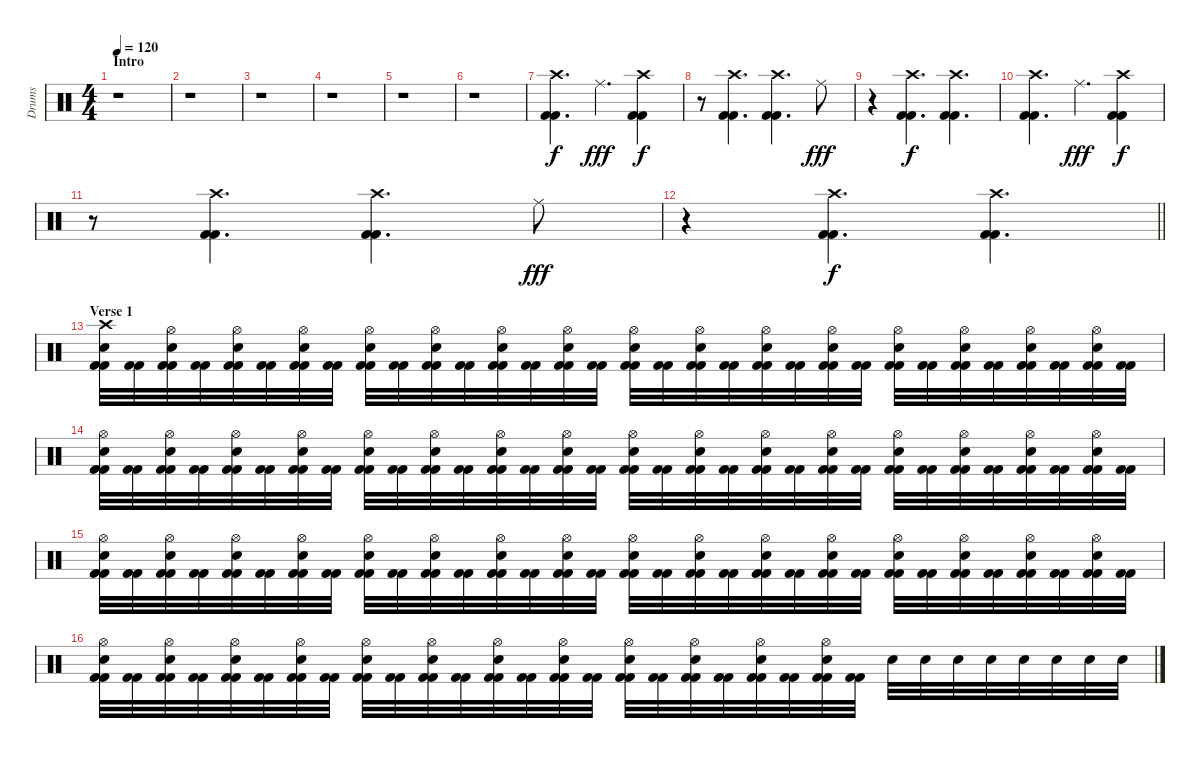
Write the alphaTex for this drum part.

\track ("Drums" "Drums") {instrument percussion}
\staff {score}
\articulation defaults
\ts (4 4)
\section ("" "Intro")
\tempo 120
\clef neutral
\ks c
r.1{dy f} |
r.1 |
r.1 |
r.1 |
r.1 |
r.1 |
("Kick (hit) 2" "Kick (hit) 2" "Crash high (hit)").4{d} "Ride (middle)".4{d dy fff} ("Kick (hit) 2" "Kick (hit) 2" "Crash high (hit)").4{dy f} |
r.8 ("Kick (hit) 2" "Kick (hit) 2" "Crash high (hit)").4{d} ("Kick (hit) 2" "Kick (hit) 2" "Crash high (hit)").4{d} "Ride (middle)".8{dy fff} |
r.4 ("Kick (hit) 2" "Kick (hit) 2" "Crash high (hit)").4{d dy f} ("Kick (hit) 2" "Kick (hit) 2" "Crash high (hit)").4{d} |
("Kick (hit) 2" "Kick (hit) 2" "Crash high (hit)").4{d} "Ride (middle)".4{d dy fff} ("Kick (hit) 2" "Kick (hit) 2" "Crash high (hit)").4{dy f} |
r.8 ("Kick (hit) 2" "Kick (hit) 2" "Crash high (hit)").4{d} ("Kick (hit) 2" "Kick (hit) 2" "Crash high (hit)").4{d} "Ride (middle)".8{dy fff} |
\barLineRight lightlight
r.4 ("Kick (hit) 2" "Kick (hit) 2" "Crash high (hit)").4{d dy f} ("Kick (hit) 2" "Kick (hit) 2" "Crash high (hit)").4{d} |
\section ("" "Verse 1")
("Kick (hit) 2" "Kick (hit) 2" "Electric Snare (hit)" "Crash high (hit)").32 ("Kick (hit) 2" "Kick (hit) 2").32 ("Kick (hit) 2" "Kick (hit) 2" "Electric Snare (hit)" "Hi-Hat (open)").32 ("Kick (hit) 2" "Kick (hit) 2").32 ("Kick (hit) 2" "Kick (hit) 2" "Electric Snare (hit)" "Hi-Hat (open)").32 ("Kick (hit) 2" "Kick (hit) 2").32 ("Kick (hit) 2" "Kick (hit) 2" "Electric Snare (hit)" "Hi-Hat (open)").32 ("Kick (hit) 2" "Kick (hit) 2").32 ("Kick (hit) 2" "Kick (hit) 2" "Electric Snare (hit)" "Hi-Hat (open)").32 ("Kick (hit) 2" "Kick (hit) 2").32 ("Kick (hit) 2" "Kick (hit) 2" "Electric Snare (hit)" "Hi-Hat (open)").32 ("Kick (hit) 2" "Kick (hit) 2").32 ("Kick (hit) 2" "Kick (hit) 2" "Electric Snare (hit)" "Hi-Hat (open)").32 ("Kick (hit) 2" "Kick (hit) 2").32 ("Kick (hit) 2" "Kick (hit) 2" "Electric Snare (hit)" "Hi-Hat (open)").32 ("Kick (hit) 2" "Kick (hit) 2").32 ("Kick (hit) 2" "Kick (hit) 2" "Electric Snare (hit)" "Hi-Hat (open)").32 ("Kick (hit) 2" "Kick (hit) 2").32 ("Kick (hit) 2" "Kick (hit) 2" "Electric Snare (hit)" "Hi-Hat (open)").32 ("Kick (hit) 2" "Kick (hit) 2").32 ("Kick (hit) 2" "Kick (hit) 2" "Electric Snare (hit)" "Hi-Hat (open)").32 ("Kick (hit) 2" "Kick (hit) 2").32 ("Kick (hit) 2" "Kick (hit) 2" "Electric Snare (hit)" "Hi-Hat (open)").32 ("Kick (hit) 2" "Kick (hit) 2").32 ("Kick (hit) 2" "Kick (hit) 2" "Electric Snare (hit)" "Hi-Hat (open)").32 ("Kick (hit) 2" "Kick (hit) 2").32 ("Kick (hit) 2" "Kick (hit) 2" "Electric Snare (hit)" "Hi-Hat (open)").32 ("Kick (hit) 2" "Kick (hit) 2").32 ("Kick (hit) 2" "Kick (hit) 2" "Electric Snare (hit)" "Hi-Hat (open)").32 ("Kick (hit) 2" "Kick (hit) 2").32 ("Kick (hit) 2" "Kick (hit) 2" "Electric Snare (hit)" "Hi-Hat (open)").32 ("Kick (hit) 2" "Kick (hit) 2").32 |
("Kick (hit) 2" "Kick (hit) 2" "Electric Snare (hit)" "Hi-Hat (open)").32 ("Kick (hit) 2" "Kick (hit) 2").32 ("Kick (hit) 2" "Kick (hit) 2" "Electric Snare (hit)" "Hi-Hat (open)").32 ("Kick (hit) 2" "Kick (hit) 2").32 ("Kick (hit) 2" "Kick (hit) 2" "Electric Snare (hit)" "Hi-Hat (open)").32 ("Kick (hit) 2" "Kick (hit) 2").32 ("Kick (hit) 2" "Kick (hit) 2" "Electric Snare (hit)" "Hi-Hat (open)").32 ("Kick (hit) 2" "Kick (hit) 2").32 ("Kick (hit) 2" "Kick (hit) 2" "Electric Snare (hit)" "Hi-Hat (open)").32 ("Kick (hit) 2" "Kick (hit) 2").32 ("Kick (hit) 2" "Kick (hit) 2" "Electric Snare (hit)" "Hi-Hat (open)").32 ("Kick (hit) 2" "Kick (hit) 2").32 ("Kick (hit) 2" "Kick (hit) 2" "Electric Snare (hit)" "Hi-Hat (open)").32 ("Kick (hit) 2" "Kick (hit) 2").32 ("Kick (hit) 2" "Kick (hit) 2" "Electric Snare (hit)" "Hi-Hat (open)").32 ("Kick (hit) 2" "Kick (hit) 2").32 ("Kick (hit) 2" "Kick (hit) 2" "Electric Snare (hit)" "Hi-Hat (open)").32 ("Kick (hit) 2" "Kick (hit) 2").32 ("Kick (hit) 2" "Kick (hit) 2" "Electric Snare (hit)" "Hi-Hat (open)").32 ("Kick (hit) 2" "Kick (hit) 2").32 ("Kick (hit) 2" "Kick (hit) 2" "Electric Snare (hit)" "Hi-Hat (open)").32 ("Kick (hit) 2" "Kick (hit) 2").32 ("Kick (hit) 2" "Kick (hit) 2" "Electric Snare (hit)" "Hi-Hat (open)").32 ("Kick (hit) 2" "Kick (hit) 2").32 ("Kick (hit) 2" "Kick (hit) 2" "Electric Snare (hit)" "Hi-Hat (open)").32 ("Kick (hit) 2" "Kick (hit) 2").32 ("Kick (hit) 2" "Kick (hit) 2" "Electric Snare (hit)" "Hi-Hat (open)").32 ("Kick (hit) 2" "Kick (hit) 2").32 ("Kick (hit) 2" "Kick (hit) 2" "Electric Snare (hit)" "Hi-Hat (open)").32 ("Kick (hit) 2" "Kick (hit) 2").32 ("Kick (hit) 2" "Kick (hit) 2" "Electric Snare (hit)" "Hi-Hat (open)").32 ("Kick (hit) 2" "Kick (hit) 2").32 |
("Kick (hit) 2" "Kick (hit) 2" "Electric Snare (hit)" "Hi-Hat (open)").32 ("Kick (hit) 2" "Kick (hit) 2").32 ("Kick (hit) 2" "Kick (hit) 2" "Electric Snare (hit)" "Hi-Hat (open)").32 ("Kick (hit) 2" "Kick (hit) 2").32 ("Kick (hit) 2" "Kick (hit) 2" "Electric Snare (hit)" "Hi-Hat (open)").32 ("Kick (hit) 2" "Kick (hit) 2").32 ("Kick (hit) 2" "Kick (hit) 2" "Electric Snare (hit)" "Hi-Hat (open)").32 ("Kick (hit) 2" "Kick (hit) 2").32 ("Kick (hit) 2" "Kick (hit) 2" "Electric Snare (hit)" "Hi-Hat (open)").32 ("Kick (hit) 2" "Kick (hit) 2").32 ("Kick (hit) 2" "Kick (hit) 2" "Electric Snare (hit)" "Hi-Hat (open)").32 ("Kick (hit) 2" "Kick (hit) 2").32 ("Kick (hit) 2" "Kick (hit) 2" "Electric Snare (hit)" "Hi-Hat (open)").32 ("Kick (hit) 2" "Kick (hit) 2").32 ("Kick (hit) 2" "Kick (hit) 2" "Electric Snare (hit)" "Hi-Hat (open)").32 ("Kick (hit) 2" "Kick (hit) 2").32 ("Kick (hit) 2" "Kick (hit) 2" "Electric Snare (hit)" "Hi-Hat (open)").32 ("Kick (hit) 2" "Kick (hit) 2").32 ("Kick (hit) 2" "Kick (hit) 2" "Electric Snare (hit)" "Hi-Hat (open)").32 ("Kick (hit) 2" "Kick (hit) 2").32 ("Kick (hit) 2" "Kick (hit) 2" "Electric Snare (hit)" "Hi-Hat (open)").32 ("Kick (hit) 2" "Kick (hit) 2").32 ("Kick (hit) 2" "Kick (hit) 2" "Electric Snare (hit)" "Hi-Hat (open)").32 ("Kick (hit) 2" "Kick (hit) 2").32 ("Kick (hit) 2" "Kick (hit) 2" "Electric Snare (hit)" "Hi-Hat (open)").32 ("Kick (hit) 2" "Kick (hit) 2").32 ("Kick (hit) 2" "Kick (hit) 2" "Electric Snare (hit)" "Hi-Hat (open)").32 ("Kick (hit) 2" "Kick (hit) 2").32 ("Kick (hit) 2" "Kick (hit) 2" "Electric Snare (hit)" "Hi-Hat (open)").32 ("Kick (hit) 2" "Kick (hit) 2").32 ("Kick (hit) 2" "Kick (hit) 2" "Electric Snare (hit)" "Hi-Hat (open)").32 ("Kick (hit) 2" "Kick (hit) 2").32 |
("Kick (hit) 2" "Kick (hit) 2" "Electric Snare (hit)" "Hi-Hat (open)").32 ("Kick (hit) 2" "Kick (hit) 2").32 ("Kick (hit) 2" "Kick (hit) 2" "Electric Snare (hit)" "Hi-Hat (open)").32 ("Kick (hit) 2" "Kick (hit) 2").32 ("Kick (hit) 2" "Kick (hit) 2" "Electric Snare (hit)" "Hi-Hat (open)").32 ("Kick (hit) 2" "Kick (hit) 2").32 ("Kick (hit) 2" "Kick (hit) 2" "Electric Snare (hit)" "Hi-Hat (open)").32 ("Kick (hit) 2" "Kick (hit) 2").32 ("Kick (hit) 2" "Kick (hit) 2" "Electric Snare (hit)" "Hi-Hat (open)").32 ("Kick (hit) 2" "Kick (hit) 2").32 ("Kick (hit) 2" "Kick (hit) 2" "Electric Snare (hit)" "Hi-Hat (open)").32 ("Kick (hit) 2" "Kick (hit) 2").32 ("Kick (hit) 2" "Kick (hit) 2" "Electric Snare (hit)" "Hi-Hat (open)").32 ("Kick (hit) 2" "Kick (hit) 2").32 ("Kick (hit) 2" "Kick (hit) 2" "Electric Snare (hit)" "Hi-Hat (open)").32 ("Kick (hit) 2" "Kick (hit) 2").32 ("Kick (hit) 2" "Kick (hit) 2" "Electric Snare (hit)" "Hi-Hat (open)").32 ("Kick (hit) 2" "Kick (hit) 2").32 ("Kick (hit) 2" "Kick (hit) 2" "Electric Snare (hit)" "Hi-Hat (open)").32 ("Kick (hit) 2" "Kick (hit) 2").32 ("Kick (hit) 2" "Kick (hit) 2" "Electric Snare (hit)" "Hi-Hat (open)").32 ("Kick (hit) 2" "Kick (hit) 2").32 ("Kick (hit) 2" "Kick (hit) 2" "Electric Snare (hit)" "Hi-Hat (open)").32 ("Kick (hit) 2" "Kick (hit) 2").32 "Electric Snare (hit)".32 "Electric Snare (hit)".32 "Electric Snare (hit)".32 "Electric Snare (hit)".32 "Electric Snare (hit)".32 "Electric Snare (hit)".32 "Electric Snare (hit)".32 "Electric Snare (hit)".32
